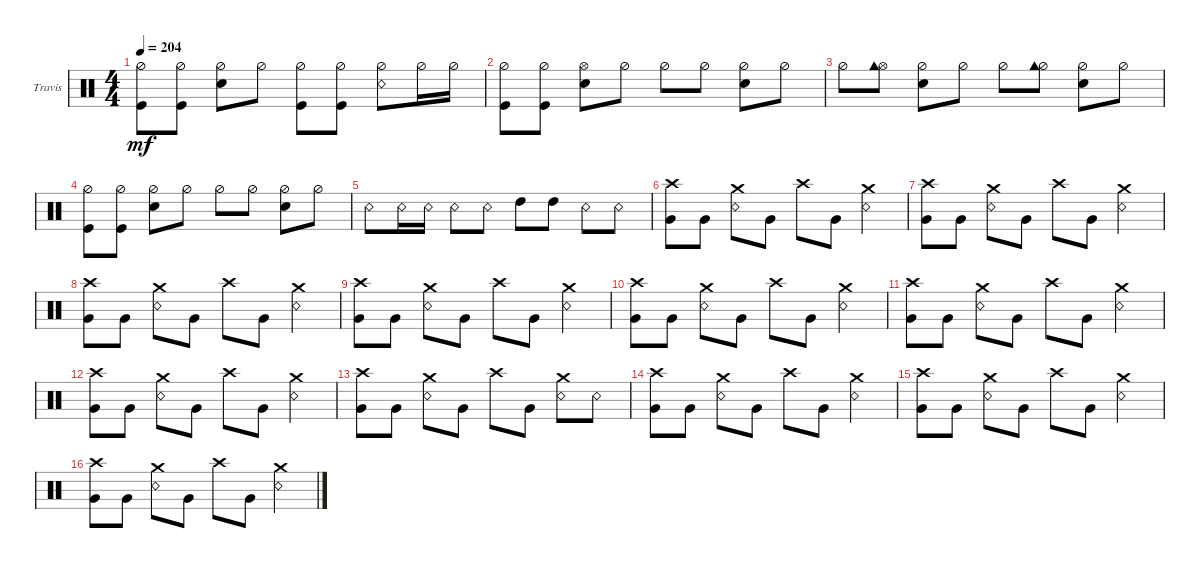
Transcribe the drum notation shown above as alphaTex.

\defaultSystemsLayout 4
\bracketExtendMode groupsimilarinstruments
\firstSystemTrackNameOrientation horizontal
\otherSystemsTrackNameOrientation horizontal
\track ("Travis Barker" "Travis") {instrument percussion}
\staff {score}
\articulation defaults
\ts (4 4)
\tempo 204
\clef neutral
\ks c
("Hi-Hat (half)" "Kick (hit)").8{dy mf} ("Hi-Hat (half)" "Kick (hit)").8 ("Hi-Hat (half)" "Snare (hit) 2").8 "Hi-Hat (half)".8 ("Hi-Hat (half)" "Kick (hit)").8 ("Hi-Hat (half)" "Kick (hit)").8 ("Hi-Hat (half)" "Snare (rim shot)").8 "Hi-Hat (half)".16 "Hi-Hat (half)".16 |
("Hi-Hat (half)" "Kick (hit)").8 ("Kick (hit)" "Hi-Hat (half)").8 ("Hi-Hat (open)" "Snare (hit) 2").8 "Hi-Hat (half)".8 "Hi-Hat (half)".8 "Hi-Hat (half)".8 ("Hi-Hat (half)" "Snare (hit) 2").8 "Hi-Hat (half)".8 |
"Hi-Hat (half)".8 ("Hi-Hat (open)" "Cowbell high (hit)").8 ("Hi-Hat (half)" "Snare (hit) 2").8 "Hi-Hat (half)".8 "Hi-Hat (half)".8 ("Hi-Hat (half)" "Cowbell high (hit)").8 ("Hi-Hat (half)" "Snare (hit) 2").8 "Hi-Hat (half)".8 |
("Hi-Hat (half)" "Kick (hit)").8 ("Kick (hit)" "Hi-Hat (half)").8 ("Hi-Hat (half)" "Snare (hit) 2").8 "Hi-Hat (half)".8 "Hi-Hat (half)".8 "Hi-Hat (half)".8 ("Hi-Hat (half)" "Snare (hit) 2").8 "Hi-Hat (half)".8 |
"Snare (rim shot)".8 "Snare (rim shot)".16 "Snare (rim shot)".16 "Snare (rim shot)".8 "Snare (rim shot)".8 "High Tom (hit)".8 "High Tom (hit)".8 "Snare (rim shot)".8 "Snare (rim shot)".8 |
("Very Low Tom (hit)" "Crash high (hit)").8 "Very Low Tom (hit)".8 ("Snare (rim shot)" "Crash medium (hit)").8 "Very Low Tom (hit)".8 "Crash high (hit)".8 "Very Low Tom (hit)".8 ("Snare (rim shot)" "Crash medium (hit)").4 |
("Very Low Tom (hit)" "Crash high (hit)").8 "Very Low Tom (hit)".8 ("Snare (rim shot)" "Crash medium (hit)").8 "Very Low Tom (hit)".8 "Crash high (hit)".8 "Very Low Tom (hit)".8 ("Snare (rim shot)" "Crash medium (hit)").4 |
("Very Low Tom (hit)" "Crash high (hit)").8 "Very Low Tom (hit)".8 ("Snare (rim shot)" "Crash medium (hit)").8 "Very Low Tom (hit)".8 "Crash high (hit)".8 "Very Low Tom (hit)".8 ("Snare (rim shot)" "Crash medium (hit)").4 |
("Very Low Tom (hit)" "Crash high (hit)").8 "Very Low Tom (hit)".8 ("Snare (rim shot)" "Crash medium (hit)").8 "Very Low Tom (hit)".8 "Crash high (hit)".8 "Very Low Tom (hit)".8 ("Snare (rim shot)" "Crash medium (hit)").4 |
("Very Low Tom (hit)" "Crash high (hit)").8 "Very Low Tom (hit)".8 ("Snare (rim shot)" "Crash medium (hit)").8 "Very Low Tom (hit)".8 "Crash high (hit)".8 "Very Low Tom (hit)".8 ("Snare (rim shot)" "Crash medium (hit)").4 |
("Very Low Tom (hit)" "Crash high (hit)").8 "Very Low Tom (hit)".8 ("Snare (rim shot)" "Crash medium (hit)").8 "Very Low Tom (hit)".8 "Crash high (hit)".8 "Very Low Tom (hit)".8 ("Snare (rim shot)" "Crash medium (hit)").4 |
("Very Low Tom (hit)" "Crash high (hit)").8 "Very Low Tom (hit)".8 ("Snare (rim shot)" "Crash medium (hit)").8 "Very Low Tom (hit)".8 "Crash high (hit)".8 "Very Low Tom (hit)".8 ("Snare (rim shot)" "Crash medium (hit)").4 |
("Very Low Tom (hit)" "Crash high (hit)").8 "Very Low Tom (hit)".8 ("Snare (rim shot)" "Crash medium (hit)").8 "Very Low Tom (hit)".8 "Crash high (hit)".8 "Very Low Tom (hit)".8 ("Snare (rim shot)" "Crash medium (hit)").8 "Snare (rim shot)".8 |
("Very Low Tom (hit)" "Crash high (hit)").8 "Very Low Tom (hit)".8 ("Snare (rim shot)" "Crash medium (hit)").8 "Very Low Tom (hit)".8 "Crash high (hit)".8 "Very Low Tom (hit)".8 ("Snare (rim shot)" "Crash medium (hit)").4 |
("Very Low Tom (hit)" "Crash high (hit)").8 "Very Low Tom (hit)".8 ("Snare (rim shot)" "Crash medium (hit)").8 "Very Low Tom (hit)".8 "Crash high (hit)".8 "Very Low Tom (hit)".8 ("Snare (rim shot)" "Crash medium (hit)").4 |
("Very Low Tom (hit)" "Crash high (hit)").8 "Very Low Tom (hit)".8 ("Snare (rim shot)" "Crash medium (hit)").8 "Very Low Tom (hit)".8 "Crash high (hit)".8 "Very Low Tom (hit)".8 ("Snare (rim shot)" "Crash medium (hit)").4
